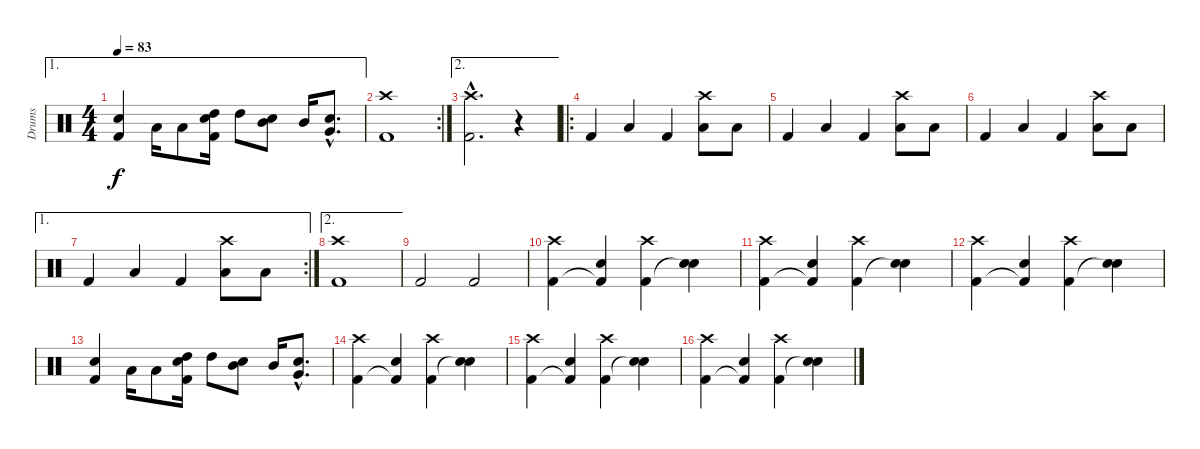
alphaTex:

\track ("Drums" "Drums") {instrument percussion}
\staff {score}
\articulation defaults
\ae 1
\ts (4 4)
\tempo 83
\clef neutral
\ks c
("Electric Snare (hit)" "Kick (hit) 2").4{dy f} "Low Tom (hit)".16 "Low Tom (hit)".8 ("High Tom (hit)" "Electric Snare (hit)" "Kick (hit) 2").16 "High Tom (hit)".8 ("Mid Tom (hit)" "Electric Snare (hit)").8 "Mid Tom (hit)".16 ("Very Low Tom (hit)"{hac} "Electric Snare (hit)"{hac}).8{d} |
\rc 2
("Crash high (hit)" "Kick (hit) 2").1 |
\ae 2
("Crash high (hit)"{hac} "Kick (hit) 2"{hac}).2{d} r.4 |
\ro "Kick (hit) 2".4 "Low Floor Tom (hit)".4 "Kick (hit) 2".4
("Crash high (hit)" "Low Floor Tom (hit)").8 "Low Floor Tom (hit)".8 |
"Kick (hit) 2".4 "Low Floor Tom (hit)".4 "Kick (hit) 2".4 ("Crash high (hit)" "Low Floor Tom (hit)").8 "Low Floor Tom (hit)".8 |
"Kick (hit) 2".4 "Low Floor Tom (hit)".4 "Kick (hit) 2".4 ("Crash high (hit)" "Low Floor Tom (hit)").8 "Low Floor Tom (hit)".8 |
\ae 1
\rc 2 "Kick (hit) 2".4 "Low Floor Tom (hit)".4 "Kick (hit) 2".4
("Crash high (hit)" "Low Floor Tom (hit)").8 "Low Floor Tom (hit)".8 |
\ae 2
("Crash high (hit)" "Kick (hit) 2").1 |
"Kick (hit) 2".2 "Kick (hit) 2".2 |
("Crash high (hit)" "Kick (hit) 2").4 ("Electric Snare (hit)" "Kick (hit) 2"{t}).4 ("Crash high (hit)" "Kick (hit) 2").4 ("Electric Snare (hit)" "Snare (hit)"{t}).4 |
("Crash high (hit)" "Kick (hit) 2").4 ("Electric Snare (hit)" "Kick (hit) 2"{t}).4 ("Crash high (hit)" "Kick (hit) 2").4 ("Electric Snare (hit)" "Snare (hit)"{t}).4 |
("Crash high (hit)" "Kick (hit) 2").4 ("Electric Snare (hit)" "Kick (hit) 2"{t}).4 ("Crash high (hit)" "Kick (hit) 2").4 ("Electric Snare (hit)" "Snare (hit)"{t}).4 |
("Electric Snare (hit)" "Kick (hit) 2").4 "Low Tom (hit)".16 "Low Tom (hit)".8 ("High Tom (hit)" "Electric Snare (hit)" "Kick (hit) 2").16 "High Tom (hit)".8 ("Mid Tom (hit)" "Electric Snare (hit)").8 "Mid Tom (hit)".16 ("Very Low Tom (hit)"{hac} "Electric Snare (hit)"{hac}).8{d} |
("Crash high (hit)" "Kick (hit) 2").4 ("Electric Snare (hit)" "Kick (hit) 2"{t}).4 ("Crash high (hit)" "Kick (hit) 2").4 ("Electric Snare (hit)" "Snare (hit)"{t}).4 |
("Crash high (hit)" "Kick (hit) 2").4 ("Electric Snare (hit)" "Kick (hit) 2"{t}).4 ("Crash high (hit)" "Kick (hit) 2").4 ("Electric Snare (hit)" "Snare (hit)"{t}).4 |
("Crash high (hit)" "Kick (hit) 2").4 ("Electric Snare (hit)" "Kick (hit) 2"{t}).4 ("Crash high (hit)" "Kick (hit) 2").4 ("Electric Snare (hit)" "Snare (hit)"{t}).4
